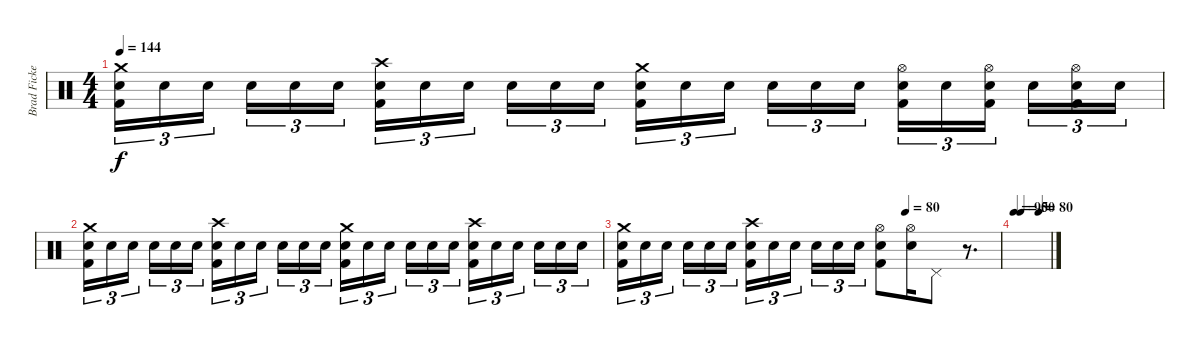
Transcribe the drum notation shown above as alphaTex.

\track ("Brad Fickeisen" "Brad Ficke") {instrument percussion}
\staff {score}
\articulation defaults
\ts (4 4)
\tempo 144
\clef neutral
\ks c
("Crash medium (hit)" "Electric Snare (hit)" "Kick (hit) 2").16{tu (3 2) dy f} "Electric Snare (hit)".16{tu (3 2)} "Electric Snare (hit)".16{tu (3 2) beam splitsecondary} "Electric Snare (hit)".16{tu (3 2)} "Electric Snare (hit)".16{tu (3 2)} "Electric Snare (hit)".16{tu (3 2)} ("Crash high (hit)" "Electric Snare (hit)" "Kick (hit) 2").16{tu (3 2)} "Electric Snare (hit)".16{tu (3 2)} "Electric Snare (hit)".16{tu (3 2) beam splitsecondary} "Electric Snare (hit)".16{tu (3 2)} "Electric Snare (hit)".16{tu (3 2)} "Electric Snare (hit)".16{tu (3 2)} ("Crash medium (hit)" "Electric Snare (hit)" "Kick (hit) 2").16{tu (3 2)} "Electric Snare (hit)".16{tu (3 2)} "Electric Snare (hit)".16{tu (3 2) beam splitsecondary} "Electric Snare (hit)".16{tu (3 2)} "Electric Snare (hit)".16{tu (3 2)} "Electric Snare (hit)".16{tu (3 2)} ("Hi-Hat (open)" "Electric Snare (hit)" "Kick (hit) 2").16{tu (3 2)} "Electric Snare (hit)".16{tu (3 2)} ("Hi-Hat (open)" "Electric Snare (hit)" "Kick (hit) 2").16{tu (3 2) beam splitsecondary} "Electric Snare (hit)".16{tu (3 2)} ("Hi-Hat (open)" "Electric Snare (hit)" "Kick (hit) 2").16{tu (3 2)} "Electric Snare (hit)".16{tu (3 2)} |
("Crash medium (hit)" "Electric Snare (hit)" "Kick (hit) 2").16{tu (3 2)} "Electric Snare (hit)".16{tu (3 2)} "Electric Snare (hit)".16{tu (3 2) beam splitsecondary} "Electric Snare (hit)".16{tu (3 2)} "Electric Snare (hit)".16{tu (3 2)} "Electric Snare (hit)".16{tu (3 2)} ("Crash high (hit)" "Electric Snare (hit)" "Kick (hit) 2").16{tu (3 2)} "Electric Snare (hit)".16{tu (3 2)} "Electric Snare (hit)".16{tu (3 2) beam splitsecondary} "Electric Snare (hit)".16{tu (3 2)} "Electric Snare (hit)".16{tu (3 2)} "Electric Snare (hit)".16{tu (3 2)} ("Crash medium (hit)" "Electric Snare (hit)" "Kick (hit) 2").16{tu (3 2)} "Electric Snare (hit)".16{tu (3 2)} "Electric Snare (hit)".16{tu (3 2) beam splitsecondary} "Electric Snare (hit)".16{tu (3 2)} "Electric Snare (hit)".16{tu (3 2)} "Electric Snare (hit)".16{tu (3 2)} ("Crash high (hit)" "Electric Snare (hit)" "Kick (hit) 2").16{tu (3 2)} "Electric Snare (hit)".16{tu (3 2)} "Electric Snare (hit)".16{tu (3 2) beam splitsecondary} "Electric Snare (hit)".16{tu (3 2)} "Electric Snare (hit)".16{tu (3 2)} "Electric Snare (hit)".16{tu (3 2)} |
\tempo (80 0.75)
("Crash medium (hit)" "Electric Snare (hit)" "Kick (hit) 2").16{tu (3 2)} "Electric Snare (hit)".16{tu (3 2)} "Electric Snare (hit)".16{tu (3 2) beam splitsecondary} "Electric Snare (hit)".16{tu (3 2)} "Electric Snare (hit)".16{tu (3 2)} "Electric Snare (hit)".16{tu (3 2)} ("Crash high (hit)" "Electric Snare (hit)" "Kick (hit) 2").16{tu (3 2)} "Electric Snare (hit)".16{tu (3 2)} "Electric Snare (hit)".16{tu (3 2) beam splitsecondary} "Electric Snare (hit)".16{tu (3 2)} "Electric Snare (hit)".16{tu (3 2)} "Electric Snare (hit)".16{tu (3 2)} ("Hi-Hat (open)" "Electric Snare (hit)" "Kick (hit) 2").8 ("Hi-Hat (open)" "Electric Snare (hit)").16 "Pedal Hi-Hat (hit)".8 r.8{d} |
\tempo 90
\tempo (50 0.1875)
\tempo (80 0.6875)
